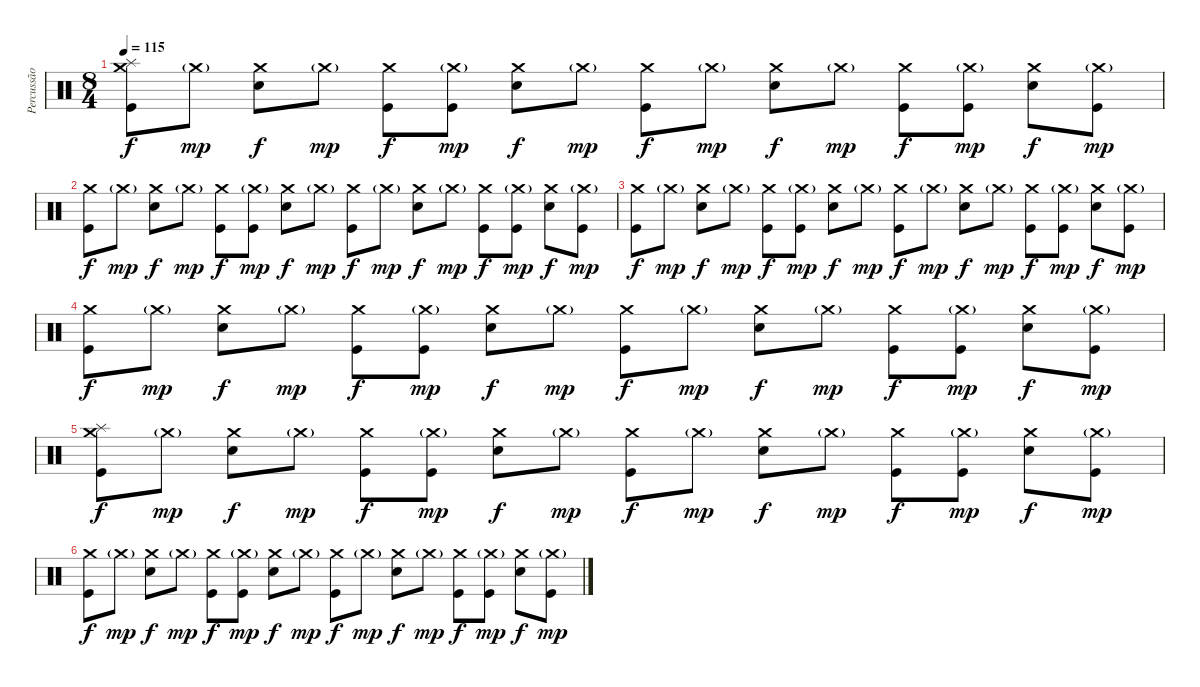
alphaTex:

\track ("Percussão" "Percussão") {instrument percussion}
\staff {score}
\articulation defaults
\ts (8 4)
\tempo 115
\clef neutral
\ks c
("Crash medium (hit)" "Splash (hit)" "Kick (hit)").8{dy f} "Crash medium (hit)"{g}.8{dy mp} ("Crash medium (hit)" "Electric Snare (hit)").8{dy f} "Crash medium (hit)"{g}.8{dy mp} ("Crash medium (hit)" "Kick (hit)").8{dy f} ("Crash medium (hit)"{g} "Kick (hit)").8{dy mp} ("Crash medium (hit)" "Electric Snare (hit)").8{dy f} "Crash medium (hit)"{g}.8{dy mp} ("Crash medium (hit)" "Kick (hit)").8{dy f} "Crash medium (hit)"{g}.8{dy mp} ("Crash medium (hit)" "Electric Snare (hit)").8{dy f} "Crash medium (hit)"{g}.8{dy mp} ("Crash medium (hit)" "Kick (hit)").8{dy f} ("Crash medium (hit)"{g} "Kick (hit)").8{dy mp} ("Crash medium (hit)" "Electric Snare (hit)").8{dy f} ("Crash medium (hit)"{g} "Kick (hit)").8{dy mp} |
("Crash medium (hit)" "Kick (hit)").8{dy f} "Crash medium (hit)"{g}.8{dy mp} ("Crash medium (hit)" "Electric Snare (hit)").8{dy f} "Crash medium (hit)"{g}.8{dy mp} ("Crash medium (hit)" "Kick (hit)").8{dy f} ("Crash medium (hit)"{g} "Kick (hit)").8{dy mp} ("Crash medium (hit)" "Electric Snare (hit)").8{dy f} "Crash medium (hit)"{g}.8{dy mp} ("Crash medium (hit)" "Kick (hit)").8{dy f} "Crash medium (hit)"{g}.8{dy mp} ("Crash medium (hit)" "Electric Snare (hit)").8{dy f} "Crash medium (hit)"{g}.8{dy mp} ("Crash medium (hit)" "Kick (hit)").8{dy f} ("Crash medium (hit)"{g} "Kick (hit)").8{dy mp} ("Crash medium (hit)" "Electric Snare (hit)").8{dy f} ("Crash medium (hit)"{g} "Kick (hit)").8{dy mp} |
("Crash medium (hit)" "Kick (hit)").8{dy f} "Crash medium (hit)"{g}.8{dy mp} ("Crash medium (hit)" "Electric Snare (hit)").8{dy f} "Crash medium (hit)"{g}.8{dy mp} ("Crash medium (hit)" "Kick (hit)").8{dy f} ("Crash medium (hit)"{g} "Kick (hit)").8{dy mp} ("Crash medium (hit)" "Electric Snare (hit)").8{dy f} "Crash medium (hit)"{g}.8{dy mp} ("Crash medium (hit)" "Kick (hit)").8{dy f} "Crash medium (hit)"{g}.8{dy mp} ("Crash medium (hit)" "Electric Snare (hit)").8{dy f} "Crash medium (hit)"{g}.8{dy mp} ("Crash medium (hit)" "Kick (hit)").8{dy f} ("Crash medium (hit)"{g} "Kick (hit)").8{dy mp} ("Crash medium (hit)" "Electric Snare (hit)").8{dy f} ("Crash medium (hit)"{g} "Kick (hit)").8{dy mp} |
("Crash medium (hit)" "Kick (hit)").8{dy f} "Crash medium (hit)"{g}.8{dy mp} ("Crash medium (hit)" "Electric Snare (hit)").8{dy f} "Crash medium (hit)"{g}.8{dy mp} ("Crash medium (hit)" "Kick (hit)").8{dy f} ("Crash medium (hit)"{g} "Kick (hit)").8{dy mp} ("Crash medium (hit)" "Electric Snare (hit)").8{dy f} "Crash medium (hit)"{g}.8{dy mp} ("Crash medium (hit)" "Kick (hit)").8{dy f} "Crash medium (hit)"{g}.8{dy mp} ("Crash medium (hit)" "Electric Snare (hit)").8{dy f} "Crash medium (hit)"{g}.8{dy mp} ("Crash medium (hit)" "Kick (hit)").8{dy f} ("Crash medium (hit)"{g} "Kick (hit)").8{dy mp} ("Crash medium (hit)" "Electric Snare (hit)").8{dy f} ("Crash medium (hit)"{g} "Kick (hit)").8{dy mp} |
("Crash medium (hit)" "Splash (hit)" "Kick (hit)").8{dy f} "Crash medium (hit)"{g}.8{dy mp} ("Crash medium (hit)" "Electric Snare (hit)").8{dy f} "Crash medium (hit)"{g}.8{dy mp} ("Crash medium (hit)" "Kick (hit)").8{dy f} ("Crash medium (hit)"{g} "Kick (hit)").8{dy mp} ("Crash medium (hit)" "Electric Snare (hit)").8{dy f} "Crash medium (hit)"{g}.8{dy mp} ("Crash medium (hit)" "Kick (hit)").8{dy f} "Crash medium (hit)"{g}.8{dy mp} ("Crash medium (hit)" "Electric Snare (hit)").8{dy f} "Crash medium (hit)"{g}.8{dy mp} ("Crash medium (hit)" "Kick (hit)").8{dy f} ("Crash medium (hit)"{g} "Kick (hit)").8{dy mp} ("Crash medium (hit)" "Electric Snare (hit)").8{dy f} ("Crash medium (hit)"{g} "Kick (hit)").8{dy mp} |
("Crash medium (hit)" "Kick (hit)").8{dy f} "Crash medium (hit)"{g}.8{dy mp} ("Crash medium (hit)" "Electric Snare (hit)").8{dy f} "Crash medium (hit)"{g}.8{dy mp} ("Crash medium (hit)" "Kick (hit)").8{dy f} ("Crash medium (hit)"{g} "Kick (hit)").8{dy mp} ("Crash medium (hit)" "Electric Snare (hit)").8{dy f} "Crash medium (hit)"{g}.8{dy mp} ("Crash medium (hit)" "Kick (hit)").8{dy f} "Crash medium (hit)"{g}.8{dy mp} ("Crash medium (hit)" "Electric Snare (hit)").8{dy f} "Crash medium (hit)"{g}.8{dy mp} ("Crash medium (hit)" "Kick (hit)").8{dy f} ("Crash medium (hit)"{g} "Kick (hit)").8{dy mp} ("Crash medium (hit)" "Electric Snare (hit)").8{dy f} ("Crash medium (hit)"{g} "Kick (hit)").8{dy mp}
